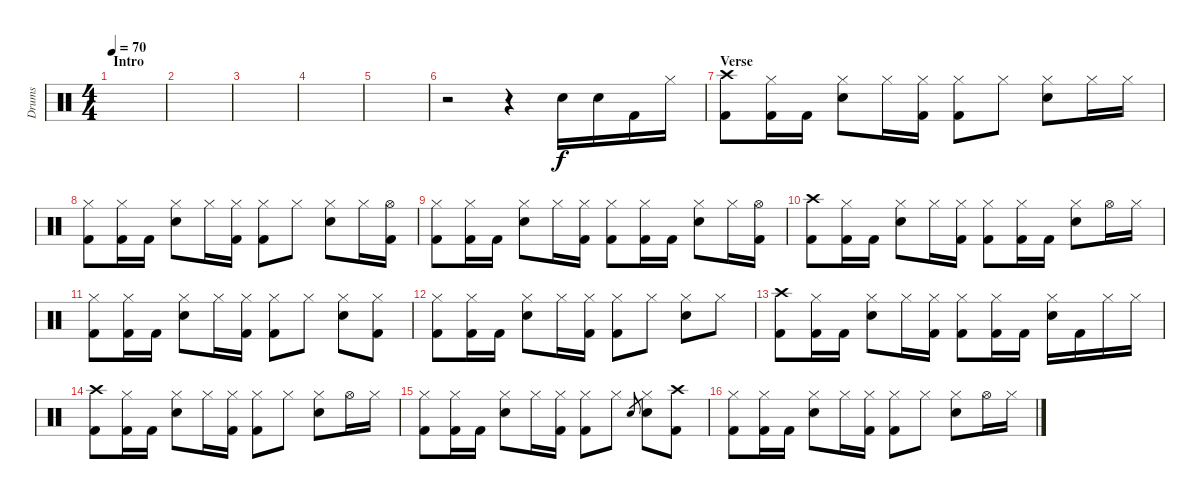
\track ("Drums" "Drums") {instrument percussion}
\staff {score}
\articulation defaults
\ts (4 4)
\section ("" "Intro")
\tempo 70
\clef neutral
\ks c
|
|
|
|
|
r.2 r.4 "Electric Snare (hit)".16 "Electric Snare (hit)".16 "Kick (hit) 2".16 "Hi-Hat (closed)".16 |
\section ("" "Verse")
("Crash high (hit)" "Kick (hit) 2").8 ("Hi-Hat (closed)" "Kick (hit) 2").16 "Kick (hit) 2".16 ("Hi-Hat (closed)" "Electric Snare (hit)").8 "Hi-Hat (closed)".16 ("Hi-Hat (closed)" "Kick (hit) 2").16 ("Hi-Hat (closed)" "Kick (hit) 2").8 "Hi-Hat (closed)".8 ("Hi-Hat (closed)" "Electric Snare (hit)").8 "Hi-Hat (closed)".16 "Hi-Hat (closed)".16 |
("Hi-Hat (closed)" "Kick (hit) 2").8 ("Hi-Hat (closed)" "Kick (hit) 2").16 "Kick (hit) 2".16 ("Hi-Hat (closed)" "Electric Snare (hit)").8 "Hi-Hat (closed)".16 ("Hi-Hat (closed)" "Kick (hit) 2").16 ("Hi-Hat (closed)" "Kick (hit) 2").8 "Hi-Hat (closed)".8 ("Hi-Hat (closed)" "Electric Snare (hit)").8 "Hi-Hat (closed)".16 ("Hi-Hat (open)" "Kick (hit) 2").16 |
("Hi-Hat (closed)" "Kick (hit) 2").8 ("Hi-Hat (closed)" "Kick (hit) 2").16 "Kick (hit) 2".16 ("Hi-Hat (closed)" "Electric Snare (hit)").8 "Hi-Hat (closed)".16 ("Hi-Hat (closed)" "Kick (hit) 2").16 ("Hi-Hat (closed)" "Kick (hit) 2").8 ("Hi-Hat (closed)" "Kick (hit) 2").16 "Kick (hit) 2".16 ("Hi-Hat (closed)" "Electric Snare (hit)").8 "Hi-Hat (closed)".16 ("Hi-Hat (open)" "Kick (hit) 2").16 |
("Crash high (hit)" "Kick (hit) 2").8 ("Hi-Hat (closed)" "Kick (hit) 2").16 "Kick (hit) 2".16 ("Hi-Hat (closed)" "Electric Snare (hit)").8 "Hi-Hat (closed)".16 ("Hi-Hat (closed)" "Kick (hit) 2").16 ("Hi-Hat (closed)" "Kick (hit) 2").8 ("Hi-Hat (closed)" "Kick (hit) 2").16 "Kick (hit) 2".16 ("Hi-Hat (closed)" "Electric Snare (hit)").8 "Hi-Hat (open)".16 "Hi-Hat (closed)".16 |
("Hi-Hat (closed)" "Kick (hit) 2").8 ("Hi-Hat (closed)" "Kick (hit) 2").16 "Kick (hit) 2".16 ("Hi-Hat (closed)" "Electric Snare (hit)").8 "Hi-Hat (closed)".16 ("Hi-Hat (closed)" "Kick (hit) 2").16 ("Hi-Hat (closed)" "Kick (hit) 2").8 "Hi-Hat (closed)".8 ("Hi-Hat (closed)" "Electric Snare (hit)").8 ("Hi-Hat (closed)" "Kick (hit) 2").8 |
("Hi-Hat (closed)" "Kick (hit) 2").8 ("Hi-Hat (closed)" "Kick (hit) 2").16 "Kick (hit) 2".16 ("Hi-Hat (closed)" "Electric Snare (hit)").8 "Hi-Hat (closed)".16 ("Hi-Hat (closed)" "Kick (hit) 2").16 ("Hi-Hat (closed)" "Kick (hit) 2").8 "Hi-Hat (closed)".8 ("Hi-Hat (closed)" "Electric Snare (hit)").8 "Hi-Hat (closed)".8 |
("Crash high (hit)" "Kick (hit) 2").8 ("Hi-Hat (closed)" "Kick (hit) 2").16 "Kick (hit) 2".16 ("Hi-Hat (closed)" "Electric Snare (hit)").8 "Hi-Hat (closed)".16 ("Hi-Hat (closed)" "Kick (hit) 2").16 ("Hi-Hat (closed)" "Kick (hit) 2").8 ("Hi-Hat (closed)" "Kick (hit) 2").16 "Kick (hit) 2".16 ("Hi-Hat (closed)" "Electric Snare (hit)").16 "Kick (hit) 2".16 "Hi-Hat (closed)".16 "Hi-Hat (closed)".16 |
("Crash high (hit)" "Kick (hit) 2").8 ("Hi-Hat (closed)" "Kick (hit) 2").16 "Kick (hit) 2".16 ("Hi-Hat (closed)" "Electric Snare (hit)").8 "Hi-Hat (closed)".16 ("Hi-Hat (closed)" "Kick (hit) 2").16 ("Hi-Hat (closed)" "Kick (hit) 2").8 "Hi-Hat (closed)".8 ("Hi-Hat (closed)" "Electric Snare (hit)").8 "Hi-Hat (open)".16 "Hi-Hat (closed)".16 |
("Hi-Hat (closed)" "Kick (hit) 2").8 ("Hi-Hat (closed)" "Kick (hit) 2").16 "Kick (hit) 2".16 ("Hi-Hat (closed)" "Electric Snare (hit)").8 "Hi-Hat (closed)".16 ("Hi-Hat (closed)" "Kick (hit) 2").16 ("Hi-Hat (closed)" "Kick (hit) 2").8 "Hi-Hat (closed)".8 "Electric Snare (hit)".8{gr} ("Hi-Hat (closed)" "Electric Snare (hit)").8 ("Crash high (hit)" "Kick (hit) 2").8 |
("Hi-Hat (closed)" "Kick (hit) 2").8 ("Hi-Hat (closed)" "Kick (hit) 2").16 "Kick (hit) 2".16 ("Hi-Hat (closed)" "Electric Snare (hit)").8 "Hi-Hat (closed)".16 ("Hi-Hat (closed)" "Kick (hit) 2").16 ("Hi-Hat (closed)" "Kick (hit) 2").8 "Hi-Hat (closed)".8 ("Hi-Hat (closed)" "Electric Snare (hit)").8 "Hi-Hat (open)".16 "Hi-Hat (closed)".16
